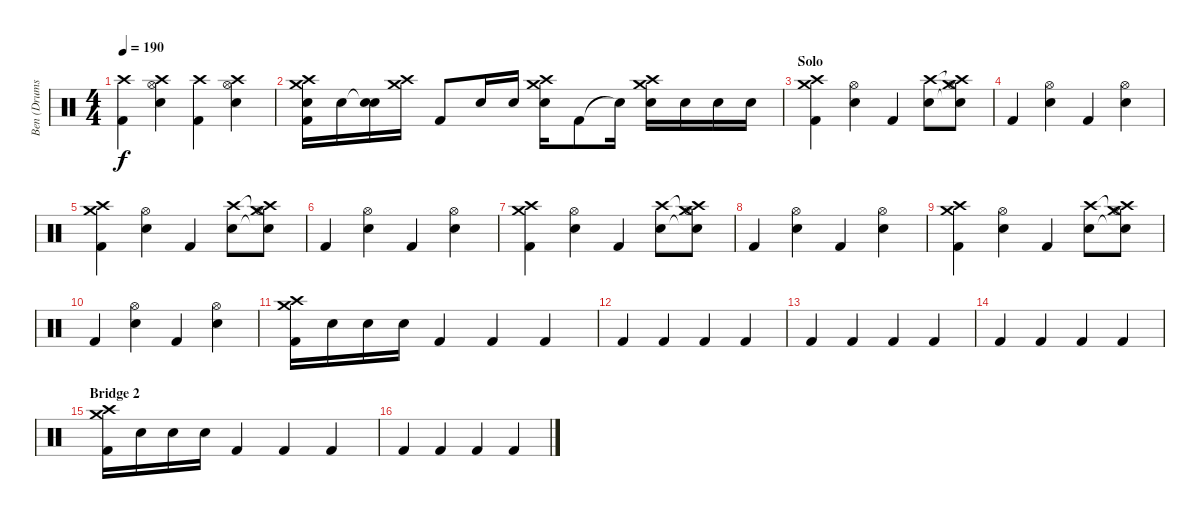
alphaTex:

\track ("Ben (Drums)" "Ben (Drums") {instrument percussion}
\staff {score}
\articulation defaults
\ts (4 4)
\tempo 190
\clef neutral
\ks c
("Kick (hit) 2" "Crash high (hit)").4{dy f volume 13} ("Snare (hit) 2" "Hi-Hat (open)" "Crash high (hit)").4 ("Kick (hit) 2" "Crash high (hit)").4 ("Snare (hit) 2" "Hi-Hat (open)" "Crash high (hit)").4 |
("Kick (hit) 2" "Snare (hit) 2" "Crash high (hit)" "Crash medium (hit)").16{volume 14} "Snare (hit) 2".16 ("Snare (hit)"{t} "Snare (hit) 2").16 ("Crash high (hit)" "Crash medium (hit)").16 "Kick (hit) 2".8 "Snare (hit) 2".16 "Snare (hit) 2".16 ("Snare (hit) 2" "Crash high (hit)" "Crash medium (hit)").16 "Kick (hit) 2".8 "Snare (hit)"{t}.16 ("Snare (hit) 2" "Crash high (hit)" "Crash medium (hit)").16 "Snare (hit) 2".16 "Snare (hit) 2".16 "Snare (hit) 2".16 |
\section ("" "Solo")
("Kick (hit) 2" "Crash medium (hit)" "Crash high (hit)").4 ("Snare (hit) 2" "Hi-Hat (open)").4 "Kick (hit) 2".4 ("Snare (hit) 2" "Crash high (hit)").8 ("Snare (hit) 2"{t} "Hi-Hat (open)"{t} "Crash medium (hit)" "Crash high (hit)").8 |
"Kick (hit) 2".4 ("Snare (hit) 2" "Hi-Hat (open)").4 "Kick (hit) 2".4 ("Snare (hit) 2" "Hi-Hat (open)").4 |
("Kick (hit) 2" "Crash medium (hit)" "Crash high (hit)").4 ("Snare (hit) 2" "Hi-Hat (open)").4 "Kick (hit) 2".4 ("Snare (hit) 2" "Crash high (hit)").8 ("Snare (hit) 2"{t} "Hi-Hat (open)"{t} "Crash medium (hit)" "Crash high (hit)").8 |
"Kick (hit) 2".4 ("Snare (hit) 2" "Hi-Hat (open)").4 "Kick (hit) 2".4 ("Snare (hit) 2" "Hi-Hat (open)").4 |
("Kick (hit) 2" "Crash medium (hit)" "Crash high (hit)").4 ("Snare (hit) 2" "Hi-Hat (open)").4 "Kick (hit) 2".4 ("Snare (hit) 2" "Crash high (hit)").8 ("Snare (hit) 2"{t} "Hi-Hat (open)"{t} "Crash medium (hit)" "Crash high (hit)").8 |
"Kick (hit) 2".4 ("Snare (hit) 2" "Hi-Hat (open)").4 "Kick (hit) 2".4 ("Snare (hit) 2" "Hi-Hat (open)").4 |
("Kick (hit) 2" "Crash medium (hit)" "Crash high (hit)").4 ("Snare (hit) 2" "Hi-Hat (open)").4 "Kick (hit) 2".4 ("Snare (hit) 2" "Crash high (hit)").8 ("Snare (hit) 2"{t} "Hi-Hat (open)"{t} "Crash medium (hit)" "Crash high (hit)").8 |
"Kick (hit) 2".4 ("Snare (hit) 2" "Hi-Hat (open)").4 "Kick (hit) 2".4 ("Snare (hit) 2" "Hi-Hat (open)").4 |
("Kick (hit) 2" "Crash medium (hit)" "Crash high (hit)").16 "Snare (hit) 2".16 "Snare (hit) 2".16 "Snare (hit) 2".16 "Kick (hit) 2".4 "Kick (hit) 2".4 "Kick (hit) 2".4 |
"Kick (hit) 2".4 "Kick (hit) 2".4 "Kick (hit) 2".4 "Kick (hit) 2".4 |
"Kick (hit) 2".4 "Kick (hit) 2".4 "Kick (hit) 2".4 "Kick (hit) 2".4 |
"Kick (hit) 2".4 "Kick (hit) 2".4 "Kick (hit) 2".4 "Kick (hit) 2".4 |
\section ("" "Bridge 2")
("Kick (hit) 2" "Crash medium (hit)" "Crash high (hit)").16 "Snare (hit) 2".16 "Snare (hit) 2".16 "Snare (hit) 2".16 "Kick (hit) 2".4 "Kick (hit) 2".4 "Kick (hit) 2".4 |
"Kick (hit) 2".4 "Kick (hit) 2".4 "Kick (hit) 2".4 "Kick (hit) 2".4
